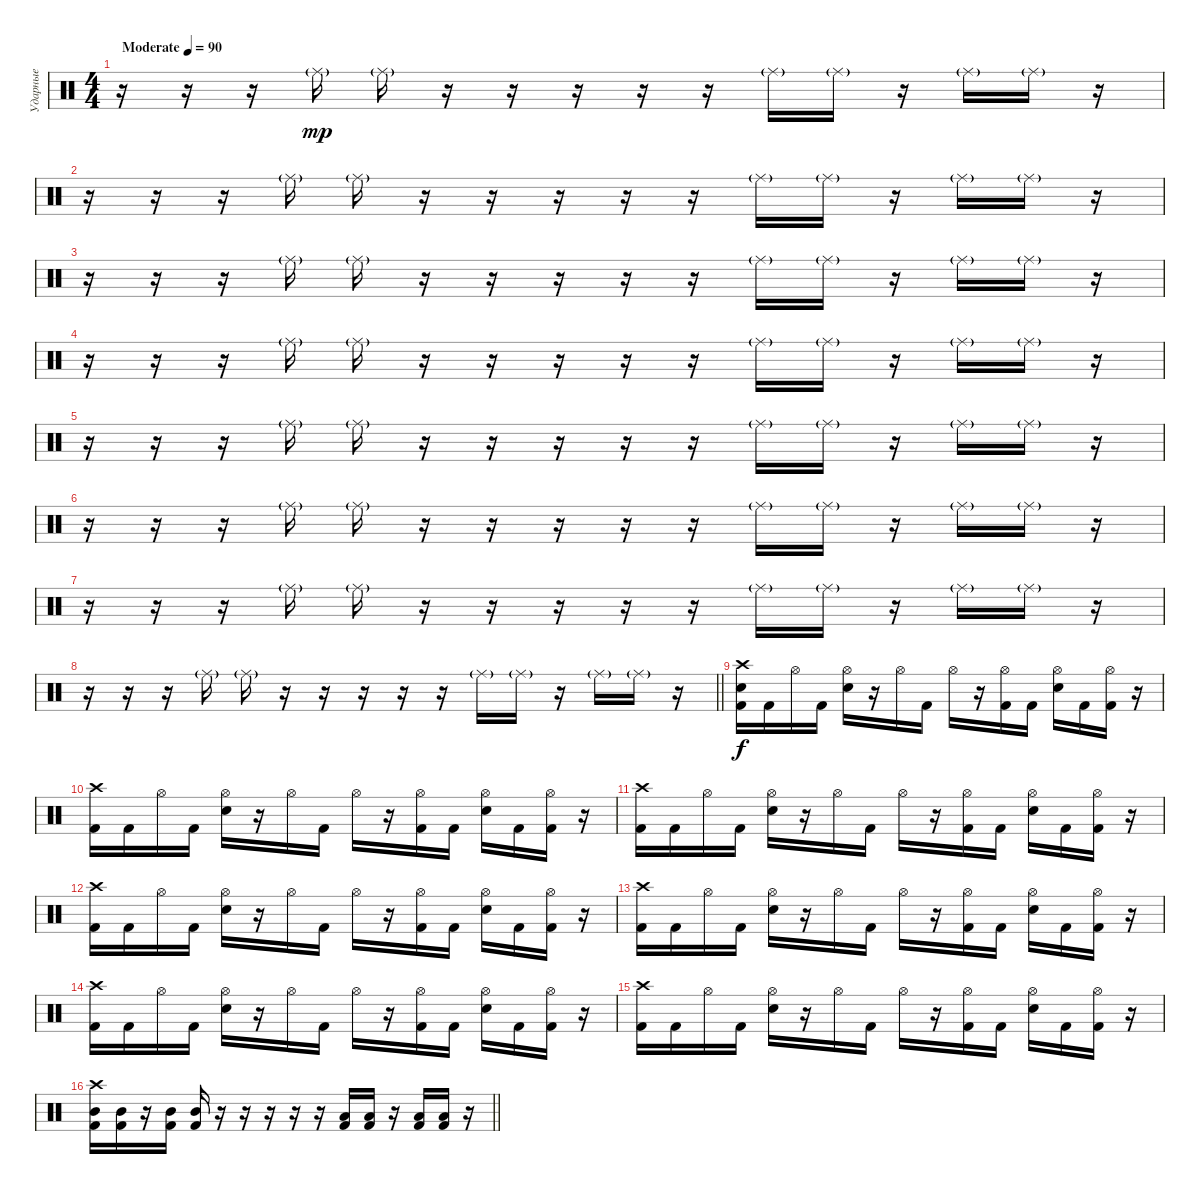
\track ("Ударные" "Ударные") {instrument percussion}
\staff {score}
\articulation defaults
\ts (4 4)
\section ("" "")
\tempo (90 "Moderate")
\clef neutral
\ks c
r.16{dy mp} r.16 r.16 "Ride (middle)"{g}.16 "Ride (middle)"{g}.16 r.16 r.16 r.16 r.16 r.16 "Ride (middle)"{g}.16 "Ride (middle)"{g}.16 r.16 "Ride (middle)"{g}.16 "Ride (middle)"{g}.16 r.16 |
r.16 r.16 r.16 "Ride (middle)"{g}.16 "Ride (middle)"{g}.16 r.16 r.16 r.16 r.16 r.16 "Ride (middle)"{g}.16 "Ride (middle)"{g}.16 r.16 "Ride (middle)"{g}.16 "Ride (middle)"{g}.16 r.16 |
r.16 r.16 r.16 "Ride (middle)"{g}.16 "Ride (middle)"{g}.16 r.16 r.16 r.16 r.16 r.16 "Ride (middle)"{g}.16 "Ride (middle)"{g}.16 r.16 "Ride (middle)"{g}.16 "Ride (middle)"{g}.16 r.16 |
r.16 r.16 r.16 "Ride (middle)"{g}.16 "Ride (middle)"{g}.16 r.16 r.16 r.16 r.16 r.16 "Ride (middle)"{g}.16 "Ride (middle)"{g}.16 r.16 "Ride (middle)"{g}.16 "Ride (middle)"{g}.16 r.16 |
r.16 r.16 r.16 "Ride (middle)"{g}.16 "Ride (middle)"{g}.16 r.16 r.16 r.16 r.16 r.16 "Ride (middle)"{g}.16 "Ride (middle)"{g}.16 r.16 "Ride (middle)"{g}.16 "Ride (middle)"{g}.16 r.16 |
r.16 r.16 r.16 "Ride (middle)"{g}.16 "Ride (middle)"{g}.16 r.16 r.16 r.16 r.16 r.16 "Ride (middle)"{g}.16 "Ride (middle)"{g}.16 r.16 "Ride (middle)"{g}.16 "Ride (middle)"{g}.16 r.16 |
r.16 r.16 r.16 "Ride (middle)"{g}.16 "Ride (middle)"{g}.16 r.16 r.16 r.16 r.16 r.16 "Ride (middle)"{g}.16 "Ride (middle)"{g}.16 r.16 "Ride (middle)"{g}.16 "Ride (middle)"{g}.16 r.16 |
\barLineRight lightlight
r.16 r.16 r.16 "Ride (middle)"{g}.16 "Ride (middle)"{g}.16 r.16 r.16 r.16 r.16 r.16 "Ride (middle)"{g}.16 "Ride (middle)"{g}.16 r.16 "Ride (middle)"{g}.16 "Ride (middle)"{g}.16 r.16 |
\section ("" "")
("Crash high (hit)" "Electric Snare (hit)" "Kick (hit) 2").16{dy f} "Kick (hit) 2".16 "Hi-Hat (open)".16 "Kick (hit) 2".16 ("Hi-Hat (open)" "Electric Snare (hit)").16 r.16 "Hi-Hat (open)".16 "Kick (hit) 2".16 "Hi-Hat (open)".16 r.16 ("Hi-Hat (open)" "Kick (hit) 2").16 "Kick (hit) 2".16 ("Hi-Hat (open)" "Electric Snare (hit)").16 "Kick (hit) 2".16 ("Hi-Hat (open)" "Kick (hit) 2").16 r.16 |
("Crash high (hit)" "Kick (hit) 2").16 "Kick (hit) 2".16 "Hi-Hat (open)".16 "Kick (hit) 2".16 ("Hi-Hat (open)" "Electric Snare (hit)").16 r.16 "Hi-Hat (open)".16 "Kick (hit) 2".16 "Hi-Hat (open)".16 r.16 ("Hi-Hat (open)" "Kick (hit) 2").16 "Kick (hit) 2".16 ("Hi-Hat (open)" "Electric Snare (hit)").16 "Kick (hit) 2".16 ("Hi-Hat (open)" "Kick (hit) 2").16 r.16 |
("Crash high (hit)" "Kick (hit) 2").16 "Kick (hit) 2".16 "Hi-Hat (open)".16 "Kick (hit) 2".16 ("Hi-Hat (open)" "Electric Snare (hit)").16 r.16 "Hi-Hat (open)".16 "Kick (hit) 2".16 "Hi-Hat (open)".16 r.16 ("Hi-Hat (open)" "Kick (hit) 2").16 "Kick (hit) 2".16 ("Hi-Hat (open)" "Electric Snare (hit)").16 "Kick (hit) 2".16 ("Hi-Hat (open)" "Kick (hit) 2").16 r.16 |
("Crash high (hit)" "Kick (hit) 2").16 "Kick (hit) 2".16 "Hi-Hat (open)".16 "Kick (hit) 2".16 ("Hi-Hat (open)" "Electric Snare (hit)").16 r.16 "Hi-Hat (open)".16 "Kick (hit) 2".16 "Hi-Hat (open)".16 r.16 ("Hi-Hat (open)" "Kick (hit) 2").16 "Kick (hit) 2".16 ("Hi-Hat (open)" "Electric Snare (hit)").16 "Kick (hit) 2".16 ("Hi-Hat (open)" "Kick (hit) 2").16 r.16 |
("Crash high (hit)" "Kick (hit) 2").16 "Kick (hit) 2".16 "Hi-Hat (open)".16 "Kick (hit) 2".16 ("Hi-Hat (open)" "Electric Snare (hit)").16 r.16 "Hi-Hat (open)".16 "Kick (hit) 2".16 "Hi-Hat (open)".16 r.16 ("Hi-Hat (open)" "Kick (hit) 2").16 "Kick (hit) 2".16 ("Hi-Hat (open)" "Electric Snare (hit)").16 "Kick (hit) 2".16 ("Hi-Hat (open)" "Kick (hit) 2").16 r.16 |
("Crash high (hit)" "Kick (hit) 2").16 "Kick (hit) 2".16 "Hi-Hat (open)".16 "Kick (hit) 2".16 ("Hi-Hat (open)" "Electric Snare (hit)").16 r.16 "Hi-Hat (open)".16 "Kick (hit) 2".16 "Hi-Hat (open)".16 r.16 ("Hi-Hat (open)" "Kick (hit) 2").16 "Kick (hit) 2".16 ("Hi-Hat (open)" "Electric Snare (hit)").16 "Kick (hit) 2".16 ("Hi-Hat (open)" "Kick (hit) 2").16 r.16 |
("Crash high (hit)" "Kick (hit) 2").16 "Kick (hit) 2".16 "Hi-Hat (open)".16 "Kick (hit) 2".16 ("Hi-Hat (open)" "Electric Snare (hit)").16 r.16 "Hi-Hat (open)".16 "Kick (hit) 2".16 "Hi-Hat (open)".16 r.16 ("Hi-Hat (open)" "Kick (hit) 2").16 "Kick (hit) 2".16 ("Hi-Hat (open)" "Electric Snare (hit)").16 "Kick (hit) 2".16 ("Hi-Hat (open)" "Kick (hit) 2").16 r.16 |
\barLineRight lightlight
("Crash high (hit)" "Mid Tom (hit)" "Kick (hit) 2").16 ("Mid Tom (hit)" "Kick (hit) 2").16 r.16 ("Mid Tom (hit)" "Kick (hit) 2").16 ("Mid Tom (hit)" "Kick (hit) 2").16 r.16 r.16 r.16 r.16 r.16 ("Low Tom (hit)" "Kick (hit) 2").16 ("Low Tom (hit)" "Kick (hit) 2").16 r.16 ("Low Tom (hit)" "Kick (hit) 2").16 ("Low Tom (hit)" "Kick (hit) 2").16 r.16
